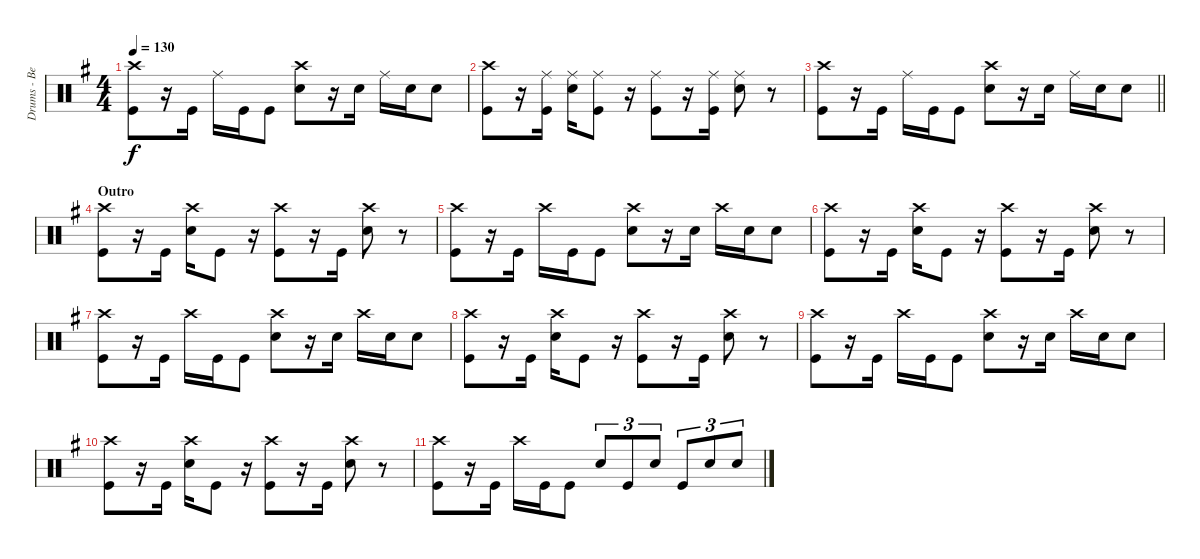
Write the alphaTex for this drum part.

\track ("Drums - Ben Johnston" "Drums - Be") {instrument percussion}
\staff {score}
\articulation defaults
\ts (4 4)
\tempo 130
\clef neutral
\ks g
("Crash high (hit)" "Kick (hit)").8{dy f} r.16 "Kick (hit)".16 "Ride (middle)".16 "Kick (hit)".16 "Kick (hit)".8 ("Crash high (hit)" "Snare (hit) 2").8 r.16 "Snare (hit) 2".16 "Ride (middle)".16 "Snare (hit) 2".16 "Snare (hit) 2".8 |
("Crash high (hit)" "Kick (hit)").8 r.16 ("Ride (middle)" "Kick (hit)").16 ("Ride (middle)" "Snare (hit) 2").16 ("Ride (middle)" "Kick (hit)").8 r.16 ("Ride (middle)" "Kick (hit)").8 r.16 ("Ride (middle)" "Kick (hit)").16 ("Ride (middle)" "Snare (hit) 2").8 r.8 |
\barLineRight lightlight
("Crash high (hit)" "Kick (hit)").8 r.16 "Kick (hit)".16 "Ride (middle)".16 "Kick (hit)".16 "Kick (hit)".8 ("Crash high (hit)" "Snare (hit) 2").8 r.16 "Snare (hit) 2".16 "Ride (middle)".16 "Snare (hit) 2".16 "Snare (hit) 2".8 |
\section ("" "Outro")
("Crash high (hit)" "Kick (hit)").8 r.16 "Kick (hit)".16 ("Crash high (hit)" "Snare (hit) 2").16 "Kick (hit)".8 r.16 ("Crash high (hit)" "Kick (hit)").8 r.16 "Kick (hit)".16 ("Crash high (hit)" "Snare (hit) 2").8 r.8 |
("Crash high (hit)" "Kick (hit)").8 r.16 "Kick (hit)".16 "Crash high (hit)".16 "Kick (hit)".16 "Kick (hit)".8 ("Crash high (hit)" "Snare (hit) 2").8 r.16 "Snare (hit) 2".16 "Crash high (hit)".16 "Snare (hit) 2".16 "Snare (hit) 2".8 |
("Crash high (hit)" "Kick (hit)").8 r.16 "Kick (hit)".16 ("Crash high (hit)" "Snare (hit) 2").16 "Kick (hit)".8 r.16 ("Crash high (hit)" "Kick (hit)").8 r.16 "Kick (hit)".16 ("Crash high (hit)" "Snare (hit) 2").8 r.8 |
("Crash high (hit)" "Kick (hit)").8 r.16 "Kick (hit)".16 "Crash high (hit)".16 "Kick (hit)".16 "Kick (hit)".8 ("Crash high (hit)" "Snare (hit) 2").8 r.16 "Snare (hit) 2".16 "Crash high (hit)".16 "Snare (hit) 2".16 "Snare (hit) 2".8 |
("Crash high (hit)" "Kick (hit)").8 r.16 "Kick (hit)".16 ("Crash high (hit)" "Snare (hit) 2").16 "Kick (hit)".8 r.16 ("Crash high (hit)" "Kick (hit)").8 r.16 "Kick (hit)".16 ("Crash high (hit)" "Snare (hit) 2").8 r.8 |
("Crash high (hit)" "Kick (hit)").8 r.16 "Kick (hit)".16 "Crash high (hit)".16 "Kick (hit)".16 "Kick (hit)".8 ("Crash high (hit)" "Snare (hit) 2").8 r.16 "Snare (hit) 2".16 "Crash high (hit)".16 "Snare (hit) 2".16 "Snare (hit) 2".8 |
("Crash high (hit)" "Kick (hit)").8 r.16 "Kick (hit)".16 ("Crash high (hit)" "Snare (hit) 2").16 "Kick (hit)".8 r.16 ("Crash high (hit)" "Kick (hit)").8 r.16 "Kick (hit)".16 ("Crash high (hit)" "Snare (hit) 2").8 r.8 |
("Crash high (hit)" "Kick (hit)").8 r.16 "Kick (hit)".16 "Crash high (hit)".16 "Kick (hit)".16 "Kick (hit)".8 "Snare (hit) 2".8{tu (3 2)} "Kick (hit)".8{tu (3 2)} "Snare (hit) 2".8{tu (3 2)} "Kick (hit)".8{tu (3 2)} "Snare (hit) 2".8{tu (3 2)} "Snare (hit) 2".8{tu (3 2)}
